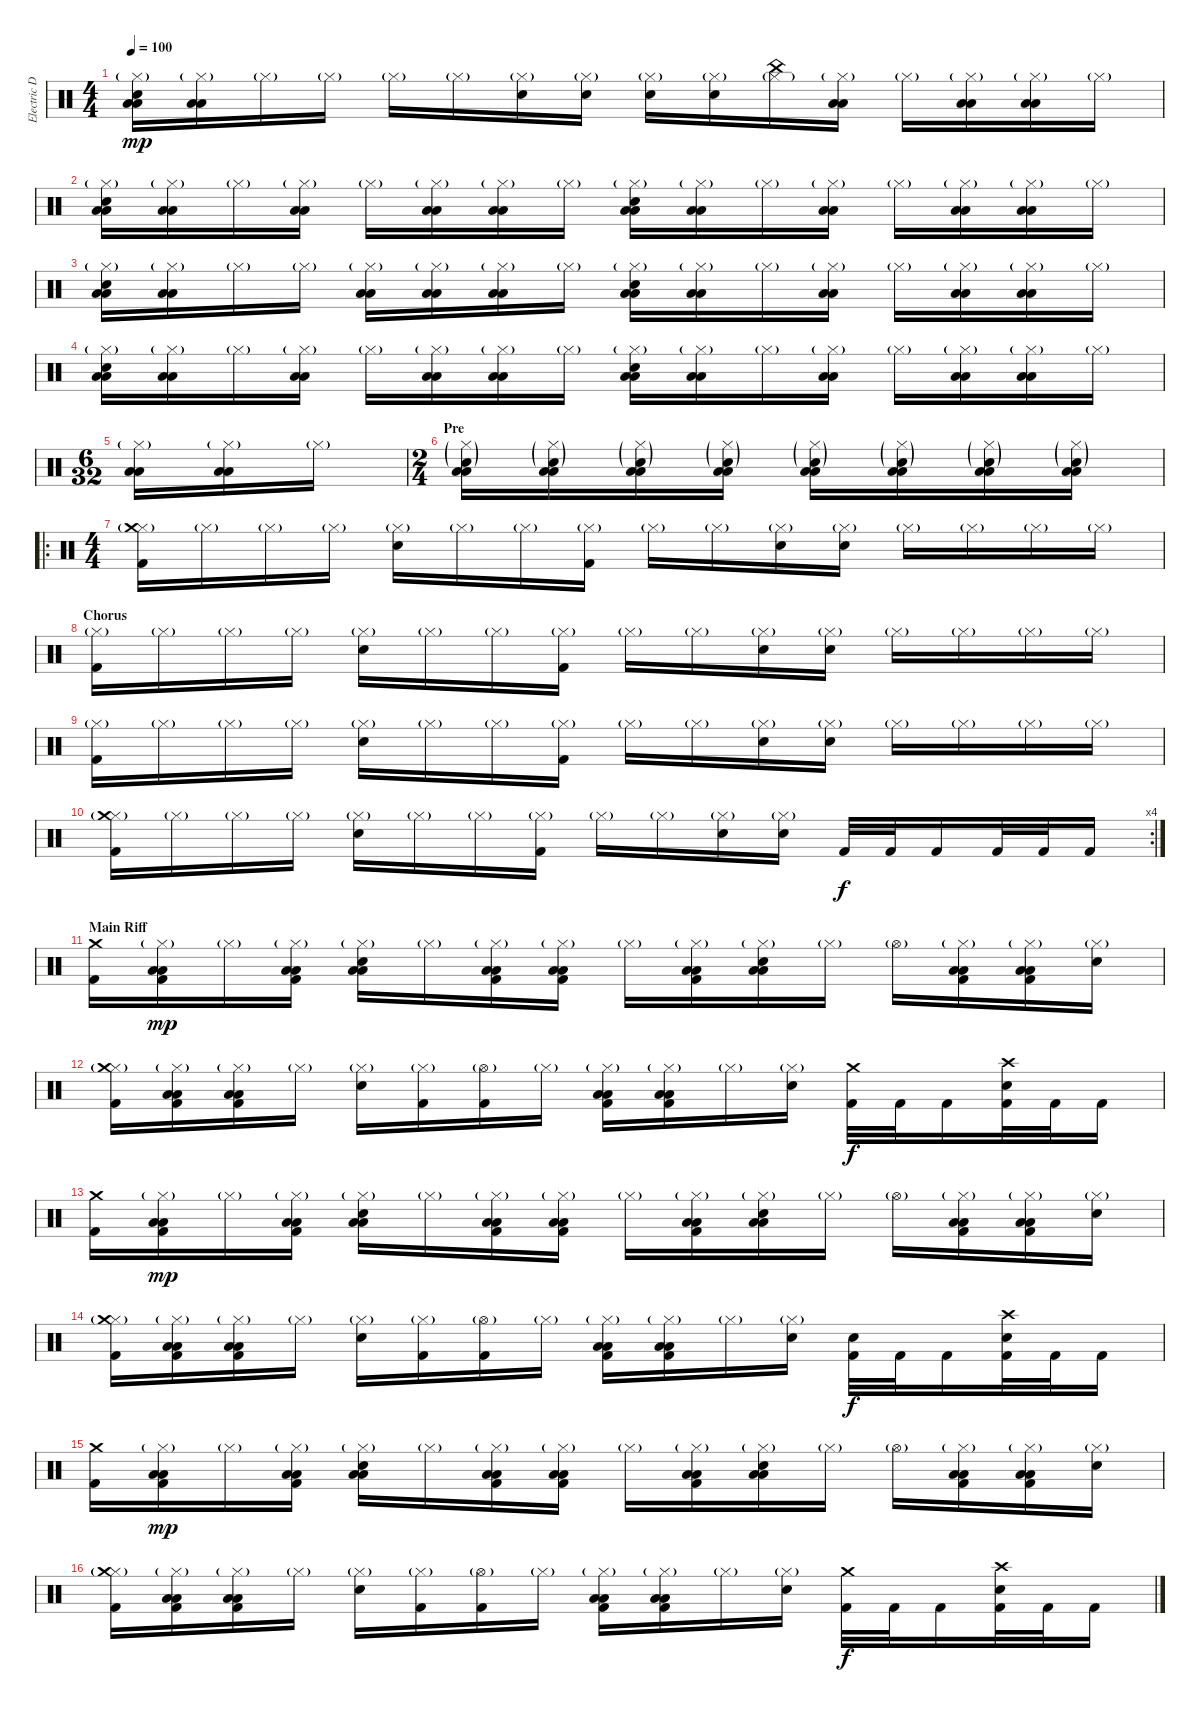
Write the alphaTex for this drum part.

\track ("Electric Drums" "Electric D") {instrument percussion}
\staff {score}
\articulation defaults
\ts (4 4)
\tempo 100
\clef neutral
\ks c
("Hi-Hat (closed)"{g} "Snare (hit) 2" "Low Floor Tom (hit)" "Low Tom (hit)").16{dy mp} ("Hi-Hat (closed)"{g} "Low Floor Tom (hit)" "Low Tom (hit)").16 "Hi-Hat (closed)"{g}.16 "Hi-Hat (closed)"{g}.16 "Hi-Hat (closed)"{g}.16 "Hi-Hat (closed)"{g}.16 ("Hi-Hat (closed)"{g} "Snare (hit) 2").16 ("Hi-Hat (closed)"{g} "Snare (hit) 2").16 ("Hi-Hat (closed)"{g} "Snare (hit) 2").16 ("Hi-Hat (closed)"{g} "Snare (hit) 2").16 ("Hi-Hat (closed)"{g} "China (hit)").16 ("Hi-Hat (closed)"{g} "Low Floor Tom (hit)" "Low Tom (hit)").16 "Hi-Hat (closed)"{g}.16 ("Hi-Hat (closed)"{g} "Low Floor Tom (hit)" "Low Tom (hit)").16 ("Hi-Hat (closed)"{g} "Low Floor Tom (hit)" "Low Tom (hit)").16 "Hi-Hat (closed)"{g}.16 |
("Hi-Hat (closed)"{g} "Snare (hit) 2" "Low Floor Tom (hit)" "Low Tom (hit)").16 ("Hi-Hat (closed)"{g} "Low Floor Tom (hit)" "Low Tom (hit)").16 "Hi-Hat (closed)"{g}.16 ("Hi-Hat (closed)"{g} "Low Floor Tom (hit)" "Low Tom (hit)").16 "Hi-Hat (closed)"{g}.16 ("Hi-Hat (closed)"{g} "Low Floor Tom (hit)" "Low Tom (hit)").16 ("Hi-Hat (closed)"{g} "Low Floor Tom (hit)" "Low Tom (hit)").16 "Hi-Hat (closed)"{g}.16 ("Hi-Hat (closed)"{g} "Snare (hit) 2" "Low Floor Tom (hit)" "Low Tom (hit)").16 ("Hi-Hat (closed)"{g} "Low Floor Tom (hit)" "Low Tom (hit)").16 "Hi-Hat (closed)"{g}.16 ("Hi-Hat (closed)"{g} "Low Floor Tom (hit)" "Low Tom (hit)").16 "Hi-Hat (closed)"{g}.16 ("Hi-Hat (closed)"{g} "Low Floor Tom (hit)" "Low Tom (hit)").16 ("Hi-Hat (closed)"{g} "Low Floor Tom (hit)" "Low Tom (hit)").16 "Hi-Hat (closed)"{g}.16 |
("Hi-Hat (closed)"{g} "Snare (hit) 2" "Low Floor Tom (hit)" "Low Tom (hit)").16 ("Hi-Hat (closed)"{g} "Low Floor Tom (hit)" "Low Tom (hit)").16 "Hi-Hat (closed)"{g}.16 "Hi-Hat (closed)"{g}.16 ("Hi-Hat (closed)"{g} "Low Floor Tom (hit)" "Low Tom (hit)").16 ("Hi-Hat (closed)"{g} "Low Floor Tom (hit)" "Low Tom (hit)").16 ("Hi-Hat (closed)"{g} "Low Floor Tom (hit)" "Low Tom (hit)").16 "Hi-Hat (closed)"{g}.16 ("Hi-Hat (closed)"{g} "Snare (hit) 2" "Low Floor Tom (hit)" "Low Tom (hit)").16 ("Hi-Hat (closed)"{g} "Low Floor Tom (hit)" "Low Tom (hit)").16 "Hi-Hat (closed)"{g}.16 ("Hi-Hat (closed)"{g} "Low Floor Tom (hit)" "Low Tom (hit)").16 "Hi-Hat (closed)"{g}.16 ("Hi-Hat (closed)"{g} "Low Floor Tom (hit)" "Low Tom (hit)").16 ("Hi-Hat (closed)"{g} "Low Floor Tom (hit)" "Low Tom (hit)").16 "Hi-Hat (closed)"{g}.16 |
("Hi-Hat (closed)"{g} "Snare (hit) 2" "Low Floor Tom (hit)" "Low Tom (hit)").16 ("Hi-Hat (closed)"{g} "Low Floor Tom (hit)" "Low Tom (hit)").16 "Hi-Hat (closed)"{g}.16 ("Hi-Hat (closed)"{g} "Low Floor Tom (hit)" "Low Tom (hit)").16 "Hi-Hat (closed)"{g}.16 ("Hi-Hat (closed)"{g} "Low Floor Tom (hit)" "Low Tom (hit)").16 ("Hi-Hat (closed)"{g} "Low Floor Tom (hit)" "Low Tom (hit)").16 "Hi-Hat (closed)"{g}.16 ("Hi-Hat (closed)"{g} "Snare (hit) 2" "Low Floor Tom (hit)" "Low Tom (hit)").16 ("Hi-Hat (closed)"{g} "Low Floor Tom (hit)" "Low Tom (hit)").16 "Hi-Hat (closed)"{g}.16 ("Hi-Hat (closed)"{g} "Low Floor Tom (hit)" "Low Tom (hit)").16 "Hi-Hat (closed)"{g}.16 ("Hi-Hat (closed)"{g} "Low Floor Tom (hit)" "Low Tom (hit)").16 ("Hi-Hat (closed)"{g} "Low Floor Tom (hit)" "Low Tom (hit)").16 "Hi-Hat (closed)"{g}.16 |
\ts (6 32)
("Hi-Hat (closed)"{g} "Low Floor Tom (hit)" "Low Tom (hit)").16 ("Hi-Hat (closed)"{g} "Low Floor Tom (hit)" "Low Tom (hit)").16 "Hi-Hat (closed)"{g}.16 |
\ts (2 4)
\section ("" "Pre")
("Hi-Hat (closed)"{g} "Low Tom (hit)" "Low Floor Tom (hit)" "Snare (hit) 2"{g}).16 ("Hi-Hat (closed)"{g} "Low Tom (hit)" "Low Floor Tom (hit)" "Snare (hit) 2"{g}).16 ("Hi-Hat (closed)"{g} "Low Tom (hit)" "Low Floor Tom (hit)" "Snare (hit) 2"{g}).16 ("Hi-Hat (closed)"{g} "Low Tom (hit)" "Low Floor Tom (hit)" "Snare (hit) 2"{g}).16 ("Hi-Hat (closed)"{g} "Low Tom (hit)" "Low Floor Tom (hit)" "Snare (hit) 2"{g}).16 ("Hi-Hat (closed)"{g} "Low Tom (hit)" "Low Floor Tom (hit)" "Snare (hit) 2"{g}).16 ("Hi-Hat (closed)"{g} "Low Tom (hit)" "Low Floor Tom (hit)" "Snare (hit) 2"{g}).16 ("Hi-Hat (closed)"{g} "Low Tom (hit)" "Low Floor Tom (hit)" "Snare (hit) 2"{g}).16 |
\ro
\ts (4 4)
("Hi-Hat (closed)"{g} "Kick (hit) 2" "Crash medium (hit)").16 "Hi-Hat (closed)"{g}.16 "Hi-Hat (closed)"{g}.16 "Hi-Hat (closed)"{g}.16 ("Hi-Hat (closed)"{g} "Snare (hit) 2").16 "Hi-Hat (closed)"{g}.16 "Hi-Hat (closed)"{g}.16 ("Hi-Hat (closed)"{g} "Kick (hit) 2").16 "Hi-Hat (closed)"{g}.16 "Hi-Hat (closed)"{g}.16 ("Hi-Hat (closed)"{g} "Snare (hit) 2").16 ("Hi-Hat (closed)"{g} "Snare (hit) 2").16 "Hi-Hat (closed)"{g}.16 "Hi-Hat (closed)"{g}.16 "Hi-Hat (closed)"{g}.16 "Hi-Hat (closed)"{g}.16 |
\section ("" "Chorus")
("Hi-Hat (closed)"{g} "Kick (hit) 2").16 "Hi-Hat (closed)"{g}.16 "Hi-Hat (closed)"{g}.16 "Hi-Hat (closed)"{g}.16 ("Hi-Hat (closed)"{g} "Snare (hit) 2").16 "Hi-Hat (closed)"{g}.16 "Hi-Hat (closed)"{g}.16 ("Hi-Hat (closed)"{g} "Kick (hit) 2").16 "Hi-Hat (closed)"{g}.16 "Hi-Hat (closed)"{g}.16 ("Hi-Hat (closed)"{g} "Snare (hit) 2").16 ("Hi-Hat (closed)"{g} "Snare (hit) 2").16 "Hi-Hat (closed)"{g}.16 "Hi-Hat (closed)"{g}.16 "Hi-Hat (closed)"{g}.16 "Hi-Hat (closed)"{g}.16 |
("Hi-Hat (closed)"{g} "Kick (hit) 2").16 "Hi-Hat (closed)"{g}.16 "Hi-Hat (closed)"{g}.16 "Hi-Hat (closed)"{g}.16 ("Hi-Hat (closed)"{g} "Snare (hit) 2").16 "Hi-Hat (closed)"{g}.16 "Hi-Hat (closed)"{g}.16 ("Hi-Hat (closed)"{g} "Kick (hit) 2").16 "Hi-Hat (closed)"{g}.16 "Hi-Hat (closed)"{g}.16 ("Hi-Hat (closed)"{g} "Snare (hit) 2").16 ("Hi-Hat (closed)"{g} "Snare (hit) 2").16 "Hi-Hat (closed)"{g}.16 "Hi-Hat (closed)"{g}.16 "Hi-Hat (closed)"{g}.16 "Hi-Hat (closed)"{g}.16 |
\rc 4
("Hi-Hat (closed)"{g} "Kick (hit) 2" "Crash medium (hit)").16 "Hi-Hat (closed)"{g}.16 "Hi-Hat (closed)"{g}.16 "Hi-Hat (closed)"{g}.16 ("Hi-Hat (closed)"{g} "Snare (hit) 2").16 "Hi-Hat (closed)"{g}.16 "Hi-Hat (closed)"{g}.16 ("Hi-Hat (closed)"{g} "Kick (hit) 2").16 "Hi-Hat (closed)"{g}.16 "Hi-Hat (closed)"{g}.16 ("Hi-Hat (closed)"{g} "Snare (hit) 2").16 ("Hi-Hat (closed)"{g} "Snare (hit) 2").16 "Kick (hit) 2".32{dy f} "Kick (hit) 2".32 "Kick (hit) 2".16 "Kick (hit) 2".32 "Kick (hit) 2".32 "Kick (hit) 2".16 |
\section ("" "Main Riff")
("Kick (hit) 2" "Crash medium (hit)").16 ("Hi-Hat (closed)"{g} "Kick (hit) 2" "Low Tom (hit)" "Low Floor Tom (hit)").16{dy mp} "Hi-Hat (closed)"{g}.16 ("Hi-Hat (closed)"{g} "Kick (hit) 2" "Low Tom (hit)" "Low Floor Tom (hit)").16 ("Hi-Hat (closed)"{g} "Snare (hit) 2" "Low Tom (hit)" "Low Floor Tom (hit)").16 "Hi-Hat (closed)"{g}.16 ("Hi-Hat (closed)"{g} "Kick (hit) 2" "Low Floor Tom (hit)" "Low Tom (hit)").16 ("Hi-Hat (closed)"{g} "Kick (hit) 2" "Low Floor Tom (hit)" "Low Tom (hit)").16 "Hi-Hat (closed)"{g}.16 ("Hi-Hat (closed)"{g} "Kick (hit) 2" "Low Floor Tom (hit)" "Low Tom (hit)").16 ("Hi-Hat (closed)"{g} "Snare (hit) 2" "Low Floor Tom (hit)" "Low Tom (hit)").16 "Hi-Hat (closed)"{g}.16 "Hi-Hat (open)"{g}.16 ("Hi-Hat (closed)"{g} "Kick (hit) 2" "Low Tom (hit)" "Low Floor Tom (hit)").16 ("Hi-Hat (closed)"{g} "Kick (hit) 2" "Low Tom (hit)" "Low Floor Tom (hit)").16 ("Hi-Hat (closed)"{g} "Snare (hit) 2").16 |
("Hi-Hat (closed)"{g} "Crash medium (hit)" "Kick (hit) 2").16 ("Hi-Hat (closed)"{g} "Low Tom (hit)" "Low Floor Tom (hit)" "Kick (hit) 2").16 ("Hi-Hat (closed)"{g} "Kick (hit) 2" "Low Floor Tom (hit)" "Low Tom (hit)").16 "Hi-Hat (closed)"{g}.16 ("Hi-Hat (closed)"{g} "Snare (hit) 2").16 ("Hi-Hat (closed)"{g} "Kick (hit) 2").16 ("Hi-Hat (open)"{g} "Kick (hit) 2").16 "Hi-Hat (closed)"{g}.16 ("Hi-Hat (closed)"{g} "Low Tom (hit)" "Low Floor Tom (hit)" "Kick (hit) 2").16 ("Hi-Hat (closed)"{g} "Low Tom (hit)" "Low Floor Tom (hit)" "Kick (hit) 2").16 "Hi-Hat (closed)"{g}.16 ("Hi-Hat (closed)"{g} "Snare (hit) 2").16 ("Crash medium (hit)" "Kick (hit) 2").32{dy f} "Kick (hit) 2".32 "Kick (hit) 2".16 ("Crash high (hit)" "Snare (hit) 2" "Kick (hit) 2").32 "Kick (hit) 2".32 "Kick (hit) 2".16 |
("Kick (hit) 2" "Crash medium (hit)").16 ("Hi-Hat (closed)"{g} "Kick (hit) 2" "Low Tom (hit)" "Low Floor Tom (hit)").16{dy mp} "Hi-Hat (closed)"{g}.16 ("Hi-Hat (closed)"{g} "Kick (hit) 2" "Low Tom (hit)" "Low Floor Tom (hit)").16 ("Hi-Hat (closed)"{g} "Snare (hit) 2" "Low Tom (hit)" "Low Floor Tom (hit)").16 "Hi-Hat (closed)"{g}.16 ("Hi-Hat (closed)"{g} "Kick (hit) 2" "Low Floor Tom (hit)" "Low Tom (hit)").16 ("Hi-Hat (closed)"{g} "Kick (hit) 2" "Low Floor Tom (hit)" "Low Tom (hit)").16 "Hi-Hat (closed)"{g}.16 ("Hi-Hat (closed)"{g} "Kick (hit) 2" "Low Floor Tom (hit)" "Low Tom (hit)").16 ("Hi-Hat (closed)"{g} "Snare (hit) 2" "Low Floor Tom (hit)" "Low Tom (hit)").16 "Hi-Hat (closed)"{g}.16 "Hi-Hat (open)"{g}.16 ("Hi-Hat (closed)"{g} "Kick (hit) 2" "Low Tom (hit)" "Low Floor Tom (hit)").16 ("Hi-Hat (closed)"{g} "Kick (hit) 2" "Low Tom (hit)" "Low Floor Tom (hit)").16 ("Hi-Hat (closed)"{g} "Snare (hit) 2").16 |
("Hi-Hat (closed)"{g} "Crash medium (hit)" "Kick (hit) 2").16 ("Hi-Hat (closed)"{g} "Low Tom (hit)" "Low Floor Tom (hit)" "Kick (hit) 2").16 ("Hi-Hat (closed)"{g} "Kick (hit) 2" "Low Floor Tom (hit)" "Low Tom (hit)").16 "Hi-Hat (closed)"{g}.16 ("Hi-Hat (closed)"{g} "Snare (hit) 2").16 ("Hi-Hat (closed)"{g} "Kick (hit) 2").16 ("Hi-Hat (open)"{g} "Kick (hit) 2").16 "Hi-Hat (closed)"{g}.16 ("Hi-Hat (closed)"{g} "Low Tom (hit)" "Low Floor Tom (hit)" "Kick (hit) 2").16 ("Hi-Hat (closed)"{g} "Low Tom (hit)" "Low Floor Tom (hit)" "Kick (hit) 2").16 "Hi-Hat (closed)"{g}.16 ("Hi-Hat (closed)"{g} "Snare (hit) 2").16 ("Snare (hit) 2" "Kick (hit) 2").32{dy f} "Kick (hit) 2".32 "Kick (hit) 2".16 ("Crash high (hit)" "Snare (hit) 2" "Kick (hit) 2").32 "Kick (hit) 2".32 "Kick (hit) 2".16 |
("Kick (hit) 2" "Crash medium (hit)").16 ("Hi-Hat (closed)"{g} "Kick (hit) 2" "Low Tom (hit)" "Low Floor Tom (hit)").16{dy mp} "Hi-Hat (closed)"{g}.16 ("Hi-Hat (closed)"{g} "Kick (hit) 2" "Low Tom (hit)" "Low Floor Tom (hit)").16 ("Hi-Hat (closed)"{g} "Snare (hit) 2" "Low Tom (hit)" "Low Floor Tom (hit)").16 "Hi-Hat (closed)"{g}.16 ("Hi-Hat (closed)"{g} "Kick (hit) 2" "Low Floor Tom (hit)" "Low Tom (hit)").16 ("Hi-Hat (closed)"{g} "Kick (hit) 2" "Low Floor Tom (hit)" "Low Tom (hit)").16 "Hi-Hat (closed)"{g}.16 ("Hi-Hat (closed)"{g} "Kick (hit) 2" "Low Floor Tom (hit)" "Low Tom (hit)").16 ("Hi-Hat (closed)"{g} "Snare (hit) 2" "Low Floor Tom (hit)" "Low Tom (hit)").16 "Hi-Hat (closed)"{g}.16 "Hi-Hat (open)"{g}.16 ("Hi-Hat (closed)"{g} "Kick (hit) 2" "Low Tom (hit)" "Low Floor Tom (hit)").16 ("Hi-Hat (closed)"{g} "Kick (hit) 2" "Low Tom (hit)" "Low Floor Tom (hit)").16 ("Hi-Hat (closed)"{g} "Snare (hit) 2").16 |
("Hi-Hat (closed)"{g} "Crash medium (hit)" "Kick (hit) 2").16 ("Hi-Hat (closed)"{g} "Low Tom (hit)" "Low Floor Tom (hit)" "Kick (hit) 2").16 ("Hi-Hat (closed)"{g} "Kick (hit) 2" "Low Floor Tom (hit)" "Low Tom (hit)").16 "Hi-Hat (closed)"{g}.16 ("Hi-Hat (closed)"{g} "Snare (hit) 2").16 ("Hi-Hat (closed)"{g} "Kick (hit) 2").16 ("Hi-Hat (open)"{g} "Kick (hit) 2").16 "Hi-Hat (closed)"{g}.16 ("Hi-Hat (closed)"{g} "Low Tom (hit)" "Low Floor Tom (hit)" "Kick (hit) 2").16 ("Hi-Hat (closed)"{g} "Low Tom (hit)" "Low Floor Tom (hit)" "Kick (hit) 2").16 "Hi-Hat (closed)"{g}.16 ("Hi-Hat (closed)"{g} "Snare (hit) 2").16 ("Crash medium (hit)" "Kick (hit) 2").32{dy f} "Kick (hit) 2".32 "Kick (hit) 2".16 ("Crash high (hit)" "Snare (hit) 2" "Kick (hit) 2").32 "Kick (hit) 2".32 "Kick (hit) 2".16
